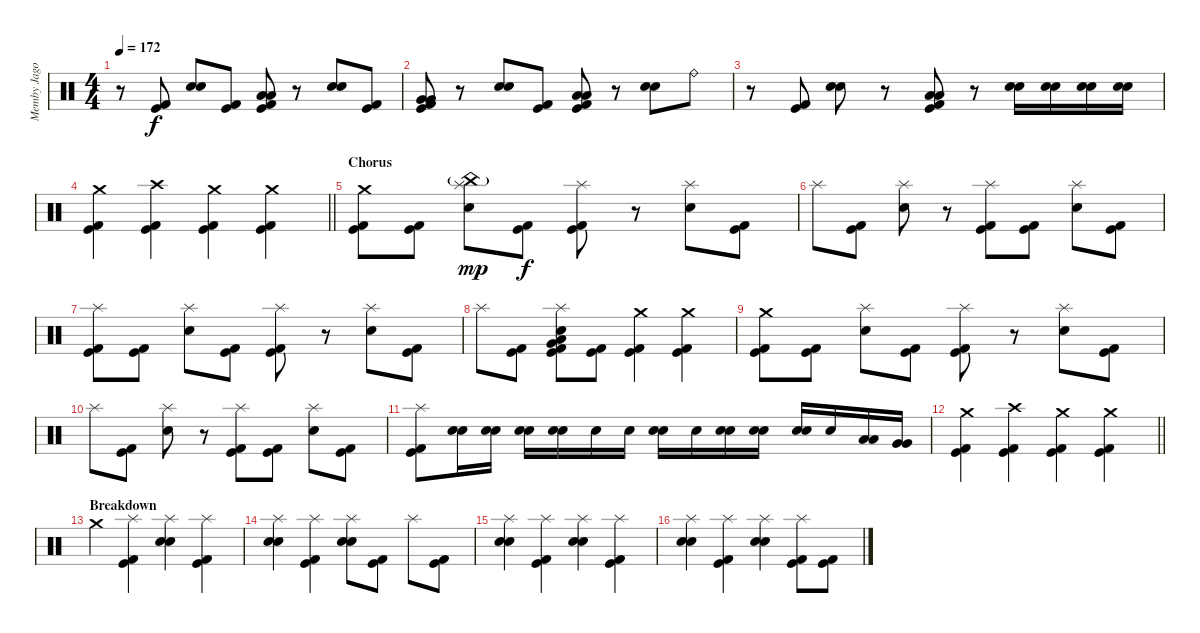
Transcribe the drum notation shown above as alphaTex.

\track ("Memby Jago" "Memby Jago") {instrument percussion}
\staff {score}
\articulation defaults
\ts (4 4)
\tempo 172
\clef neutral
\ks c
r.8{dy f} ("Kick (hit)" "Kick (hit) 2").8 ("Electric Snare (hit)" "Snare (hit) 2").8 ("Kick (hit)" "Kick (hit) 2").8 ("Low Tom (hit)" "Low Tom (hit)" "Kick (hit)" "Kick (hit) 2").8 r.8 ("Electric Snare (hit)" "Snare (hit) 2").8 ("Kick (hit)" "Kick (hit) 2").8 |
("Very Low Tom (hit)" "Very Low Tom (hit)" "Kick (hit)" "Kick (hit) 2").8 r.8 ("Electric Snare (hit)" "Snare (hit) 2").8 ("Kick (hit)" "Kick (hit) 2").8 ("Low Floor Tom (hit)" "Low Floor Tom (hit)" "Kick (hit)" "Kick (hit) 2").8 r.8 ("Electric Snare (hit)" "Snare (hit) 2").8 "Ride (bell)".8 |
r.8 ("Kick (hit)" "Kick (hit) 2").8 ("Electric Snare (hit)" "Snare (hit) 2").8 r.8 ("Low Tom (hit)" "Low Tom (hit)" "Kick (hit)" "Kick (hit) 2").8 r.8 ("Electric Snare (hit)" "Snare (hit) 2").16 ("Electric Snare (hit)" "Snare (hit) 2").16 ("Electric Snare (hit)" "Snare (hit) 2").16 ("Electric Snare (hit)" "Snare (hit) 2").16 |
\barLineRight lightlight
("Crash medium (hit)" "Kick (hit)" "Kick (hit) 2").4 ("Crash high (hit)" "Kick (hit)" "Kick (hit) 2").4 ("Crash medium (hit)" "Kick (hit)" "Kick (hit) 2").4 ("Crash medium (hit)" "Kick (hit)" "Kick (hit) 2").4 |
\section ("" "Chorus")
("Crash medium (hit)" "Kick (hit)" "Kick (hit) 2").8 ("Kick (hit)" "Kick (hit) 2").8 ("Splash (hit)" "China (hit)"{g} "Snare (hit) 2").8{dy mp} ("Kick (hit)" "Kick (hit) 2").8{dy f} ("Splash (hit)" "Kick (hit)" "Kick (hit) 2").8 r.8 ("Splash (hit)" "Snare (hit) 2").8 ("Kick (hit)" "Kick (hit) 2").8 |
"Splash (hit)".8 ("Kick (hit)" "Kick (hit) 2").8 ("Splash (hit)" "Snare (hit) 2").8 r.8 ("Splash (hit)" "Kick (hit)" "Kick (hit) 2").8 ("Kick (hit)" "Kick (hit) 2").8 ("Splash (hit)" "Snare (hit) 2").8 ("Kick (hit)" "Kick (hit) 2").8 |
("Splash (hit)" "Kick (hit)" "Kick (hit) 2").8 ("Kick (hit)" "Kick (hit) 2").8 ("Splash (hit)" "Snare (hit) 2").8 ("Kick (hit)" "Kick (hit) 2").8 ("Splash (hit)" "Kick (hit)" "Kick (hit) 2").8 r.8 ("Splash (hit)" "Snare (hit) 2").8 ("Kick (hit)" "Kick (hit) 2").8 |
"Splash (hit)".8 ("Kick (hit)" "Kick (hit) 2").8 ("Low Tom (hit)" "Splash (hit)" "Very Low Tom (hit)" "Snare (hit) 2" "Kick (hit)" "Kick (hit) 2").8 ("Kick (hit)" "Kick (hit) 2").8 ("Crash medium (hit)" "Kick (hit)" "Kick (hit) 2").4 ("Crash medium (hit)" "Kick (hit)" "Kick (hit) 2").4 |
("Crash medium (hit)" "Kick (hit)" "Kick (hit) 2").8 ("Kick (hit)" "Kick (hit) 2").8 ("Splash (hit)" "Snare (hit) 2").8 ("Kick (hit)" "Kick (hit) 2").8 ("Splash (hit)" "Kick (hit)" "Kick (hit) 2").8 r.8 ("Splash (hit)" "Snare (hit) 2").8 ("Kick (hit)" "Kick (hit) 2").8 |
"Splash (hit)".8 ("Kick (hit)" "Kick (hit) 2").8 ("Splash (hit)" "Snare (hit) 2").8 r.8 ("Splash (hit)" "Kick (hit)" "Kick (hit) 2").8 ("Kick (hit)" "Kick (hit) 2").8 ("Splash (hit)" "Snare (hit) 2").8 ("Kick (hit)" "Kick (hit) 2").8 |
("Splash (hit)" "Kick (hit)" "Kick (hit) 2").8 ("Electric Snare (hit)" "Snare (hit) 2").16 ("Electric Snare (hit)" "Snare (hit) 2").16 ("Electric Snare (hit)" "Snare (hit) 2").16 ("Electric Snare (hit)" "Snare (hit) 2").16 "Snare (hit) 2".16 "Snare (hit) 2".16 ("Electric Snare (hit)" "Snare (hit) 2").16 "Snare (hit) 2".16 ("Electric Snare (hit)" "Snare (hit) 2").16 ("Electric Snare (hit)" "Snare (hit) 2").16 ("Electric Snare (hit)" "Snare (hit) 2").16 "Snare (hit) 2".16 ("Low Tom (hit)" "Low Tom (hit)").16 ("Very Low Tom (hit)" "Very Low Tom (hit)").16 |
\barLineRight lightlight
("Crash medium (hit)" "Kick (hit)" "Kick (hit) 2").4 ("Crash high (hit)" "Kick (hit)" "Kick (hit) 2").4 ("Crash medium (hit)" "Kick (hit)" "Kick (hit) 2").4 ("Crash medium (hit)" "Kick (hit)" "Kick (hit) 2").4 |
\section ("" "Breakdown")
"Crash medium (hit)".4 ("Splash (hit)" "Kick (hit)" "Kick (hit) 2").4 ("Splash (hit)" "Electric Snare (hit)" "Snare (hit) 2").4 ("Splash (hit)" "Kick (hit)" "Kick (hit) 2").4 |
("Splash (hit)" "Electric Snare (hit)" "Snare (hit) 2").4 ("Splash (hit)" "Kick (hit)" "Kick (hit) 2").4 ("Splash (hit)" "Electric Snare (hit)" "Snare (hit) 2").8 ("Kick (hit)" "Kick (hit) 2").8 "Splash (hit)".8 ("Kick (hit)" "Kick (hit) 2").8 |
("Splash (hit)" "Electric Snare (hit)" "Snare (hit) 2").4 ("Splash (hit)" "Kick (hit)" "Kick (hit) 2").4 ("Splash (hit)" "Electric Snare (hit)" "Snare (hit) 2").4 ("Splash (hit)" "Kick (hit)" "Kick (hit) 2").4 |
("Splash (hit)" "Electric Snare (hit)" "Snare (hit) 2").4 ("Splash (hit)" "Kick (hit)" "Kick (hit) 2").4 ("Splash (hit)" "Electric Snare (hit)" "Snare (hit) 2").4 ("Splash (hit)" "Kick (hit)" "Kick (hit) 2").8 ("Kick (hit)" "Kick (hit) 2").8
